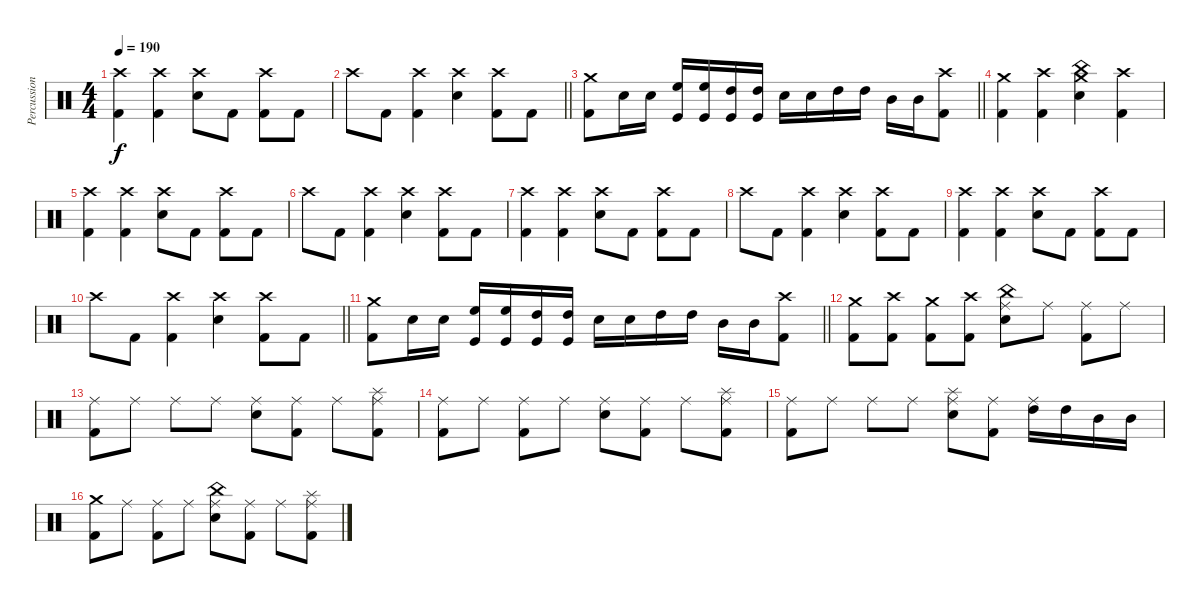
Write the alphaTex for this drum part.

\track ("Percussions" "Percussion") {instrument percussion}
\staff {score}
\articulation defaults
\ts (4 4)
\tempo 190
\clef neutral
\ks c
("Crash high (hit)" "Kick (hit) 2").4{dy f} ("Crash high (hit)" "Kick (hit) 2").4 ("Crash high (hit)" "Electric Snare (hit)").8 "Kick (hit) 2".8 ("Crash high (hit)" "Kick (hit) 2").8 "Kick (hit) 2".8 |
\barLineRight lightlight "Crash high (hit)".8 "Kick (hit) 2".8
("Crash high (hit)" "Kick (hit) 2").4 ("Crash high (hit)" "Electric Snare (hit)").4 ("Crash high (hit)" "Kick (hit) 2").8 "Kick (hit) 2".8 |
\barLineRight lightlight
("Crash medium (hit)" "Kick (hit) 2").8 "Electric Snare (hit)".16 "Electric Snare (hit)".16 ("High Floor Tom (hit)" "Kick (hit)").16 ("High Floor Tom (hit)" "Kick (hit)").16 ("High Tom (hit)" "Kick (hit)").16 ("High Tom (hit)" "Kick (hit)").16 "Electric Snare (hit)".16 "Electric Snare (hit)".16 "High Tom (hit)".16 "High Tom (hit)".16 "Mid Tom (hit)".16 "Mid Tom (hit)".16 ("Crash high (hit)" "Kick (hit) 2").8 |
("Crash medium (hit)" "Kick (hit) 2").4 ("Crash high (hit)" "Kick (hit) 2").4 ("Crash medium (hit)" "China (hit)" "Electric Snare (hit)").4 ("Crash high (hit)" "Kick (hit) 2").4 |
("Crash high (hit)" "Kick (hit) 2").4 ("Crash high (hit)" "Kick (hit) 2").4 ("Crash high (hit)" "Electric Snare (hit)").8 "Kick (hit) 2".8 ("Crash high (hit)" "Kick (hit) 2").8 "Kick (hit) 2".8 |
"Crash high (hit)".8 "Kick (hit) 2".8 ("Crash high (hit)" "Kick (hit) 2").4 ("Crash high (hit)" "Electric Snare (hit)").4 ("Crash high (hit)" "Kick (hit) 2").8 "Kick (hit) 2".8 |
("Crash high (hit)" "Kick (hit) 2").4 ("Crash high (hit)" "Kick (hit) 2").4 ("Crash high (hit)" "Electric Snare (hit)").8 "Kick (hit) 2".8 ("Crash high (hit)" "Kick (hit) 2").8 "Kick (hit) 2".8 |
"Crash high (hit)".8 "Kick (hit) 2".8 ("Crash high (hit)" "Kick (hit) 2").4 ("Crash high (hit)" "Electric Snare (hit)").4 ("Crash high (hit)" "Kick (hit) 2").8 "Kick (hit) 2".8 |
("Crash high (hit)" "Kick (hit) 2").4 ("Crash high (hit)" "Kick (hit) 2").4 ("Crash high (hit)" "Electric Snare (hit)").8 "Kick (hit) 2".8 ("Crash high (hit)" "Kick (hit) 2").8 "Kick (hit) 2".8 |
\barLineRight lightlight "Crash high (hit)".8 "Kick (hit) 2".8
("Crash high (hit)" "Kick (hit) 2").4 ("Crash high (hit)" "Electric Snare (hit)").4 ("Crash high (hit)" "Kick (hit) 2").8 "Kick (hit) 2".8 |
\barLineRight lightlight
("Crash medium (hit)" "Kick (hit) 2").8 "Electric Snare (hit)".16 "Electric Snare (hit)".16 ("High Floor Tom (hit)" "Kick (hit)").16 ("High Floor Tom (hit)" "Kick (hit)").16 ("High Tom (hit)" "Kick (hit)").16 ("High Tom (hit)" "Kick (hit)").16 "Electric Snare (hit)".16 "Electric Snare (hit)".16 "High Tom (hit)".16 "High Tom (hit)".16 "Mid Tom (hit)".16 "Mid Tom (hit)".16 ("Crash high (hit)" "Kick (hit) 2").8 |
("Crash medium (hit)" "Kick (hit) 2").8 ("Crash high (hit)" "Kick (hit) 2").8 ("Crash medium (hit)" "Kick (hit) 2").8 ("Crash high (hit)" "Kick (hit) 2").8 ("Ride (middle)" "China (hit)" "Electric Snare (hit)").8 "Ride (middle)".8 ("Ride (middle)" "Kick (hit) 2").8 "Ride (middle)".8 |
("Ride (middle)" "Kick (hit) 2").8 "Ride (middle)".8 "Ride (middle)".8 "Ride (middle)".8 ("Ride (middle)" "Electric Snare (hit)").8 ("Ride (middle)" "Kick (hit) 2").8 "Ride (middle)".8 ("Ride (middle)" "Splash (hit)" "Kick (hit) 2").8 |
("Ride (middle)" "Kick (hit) 2").8 "Ride (middle)".8 ("Ride (middle)" "Kick (hit) 2").8 "Ride (middle)".8 ("Ride (middle)" "Electric Snare (hit)").8 ("Ride (middle)" "Kick (hit) 2").8 "Ride (middle)".8 ("Ride (middle)" "Splash (hit)" "Kick (hit) 2").8 |
("Ride (middle)" "Kick (hit) 2").8 "Ride (middle)".8 "Ride (middle)".8 "Ride (middle)".8 ("Ride (middle)" "Splash (hit)" "Electric Snare (hit)").8 ("Ride (middle)" "Kick (hit) 2").8 ("Ride (middle)" "High Tom (hit)").16 "High Tom (hit)".16 "Mid Tom (hit)".16 "Mid Tom (hit)".16 |
("Crash medium (hit)" "Kick (hit) 2").8 "Ride (middle)".8 ("Ride (middle)" "Kick (hit) 2").8 "Ride (middle)".8 ("Ride (middle)" "China (hit)" "Electric Snare (hit)").8 ("Ride (middle)" "Kick (hit) 2").8 "Ride (middle)".8 ("Ride (middle)" "Splash (hit)" "Kick (hit) 2").8
